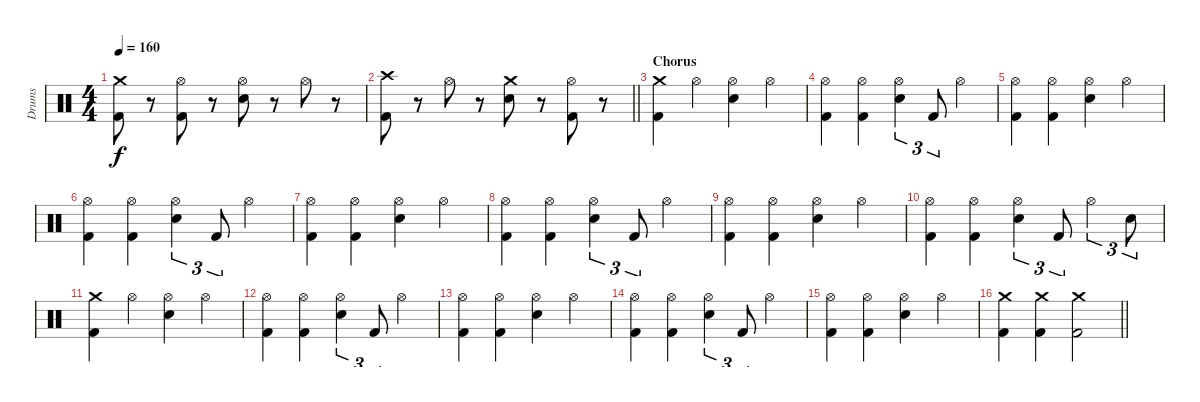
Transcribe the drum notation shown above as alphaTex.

\track ("Drums" "Drums") {instrument percussion}
\staff {score}
\articulation defaults
\ts (4 4)
\tempo 160
\clef neutral
\ks c
("Crash medium (hit)" "Kick (hit) 2").8{dy f} r.8 ("Hi-Hat (open)" "Kick (hit) 2").8 r.8 ("Hi-Hat (open)" "Electric Snare (hit)").8 r.8 "Hi-Hat (open)".8 r.8 |
\barLineRight lightlight
("Crash high (hit)" "Kick (hit) 2").8 r.8 "Hi-Hat (open)".8 r.8 ("Crash medium (hit)" "Electric Snare (hit)").8 r.8 ("Hi-Hat (open)" "Kick (hit) 2").8 r.8 |
\section ("" "Chorus")
("Crash medium (hit)" "Kick (hit) 2").4 "Hi-Hat (open)".4 ("Hi-Hat (open)" "Electric Snare (hit)").4 "Hi-Hat (open)".4 |
("Hi-Hat (open)" "Kick (hit) 2").4 ("Hi-Hat (open)" "Kick (hit) 2").4 ("Hi-Hat (open)" "Electric Snare (hit)").4{tu (3 2)} "Kick (hit) 2".8{tu (3 2)} "Hi-Hat (open)".4 |
("Hi-Hat (open)" "Kick (hit) 2").4 ("Hi-Hat (open)" "Kick (hit) 2").4 ("Hi-Hat (open)" "Electric Snare (hit)").4 "Hi-Hat (open)".4 |
("Hi-Hat (open)" "Kick (hit) 2").4 ("Hi-Hat (open)" "Kick (hit) 2").4 ("Hi-Hat (open)" "Electric Snare (hit)").4{tu (3 2)} "Kick (hit) 2".8{tu (3 2)} "Hi-Hat (open)".4 |
("Hi-Hat (open)" "Kick (hit) 2").4 ("Hi-Hat (open)" "Kick (hit) 2").4 ("Hi-Hat (open)" "Electric Snare (hit)").4 "Hi-Hat (open)".4 |
("Hi-Hat (open)" "Kick (hit) 2").4 ("Hi-Hat (open)" "Kick (hit) 2").4 ("Hi-Hat (open)" "Electric Snare (hit)").4{tu (3 2)} "Kick (hit) 2".8{tu (3 2)} "Hi-Hat (open)".4 |
("Hi-Hat (open)" "Kick (hit) 2").4 ("Hi-Hat (open)" "Kick (hit) 2").4 ("Hi-Hat (open)" "Electric Snare (hit)").4 "Hi-Hat (open)".4 |
("Hi-Hat (open)" "Kick (hit) 2").4 ("Hi-Hat (open)" "Kick (hit) 2").4 ("Hi-Hat (open)" "Electric Snare (hit)").4{tu (3 2)} "Kick (hit) 2".8{tu (3 2)} "Hi-Hat (open)".4{tu (3 2)} "Electric Snare (hit)".8{tu (3 2)} |
("Crash medium (hit)" "Kick (hit) 2").4 "Hi-Hat (open)".4 ("Hi-Hat (open)" "Electric Snare (hit)").4 "Hi-Hat (open)".4 |
("Hi-Hat (open)" "Kick (hit) 2").4 ("Hi-Hat (open)" "Kick (hit) 2").4 ("Hi-Hat (open)" "Electric Snare (hit)").4{tu (3 2)} "Kick (hit) 2".8{tu (3 2)} "Hi-Hat (open)".4 |
("Hi-Hat (open)" "Kick (hit) 2").4 ("Hi-Hat (open)" "Kick (hit) 2").4 ("Hi-Hat (open)" "Electric Snare (hit)").4 "Hi-Hat (open)".4 |
("Hi-Hat (open)" "Kick (hit) 2").4 ("Hi-Hat (open)" "Kick (hit) 2").4 ("Hi-Hat (open)" "Electric Snare (hit)").4{tu (3 2)} "Kick (hit) 2".8{tu (3 2)} "Hi-Hat (open)".4 |
("Hi-Hat (open)" "Kick (hit) 2").4 ("Hi-Hat (open)" "Kick (hit) 2").4 ("Hi-Hat (open)" "Electric Snare (hit)").4 "Hi-Hat (open)".4 |
\barLineRight lightlight
("Crash medium (hit)" "Kick (hit) 2").4 ("Crash medium (hit)" "Kick (hit) 2").4 ("Crash medium (hit)" "Kick (hit) 2").2
